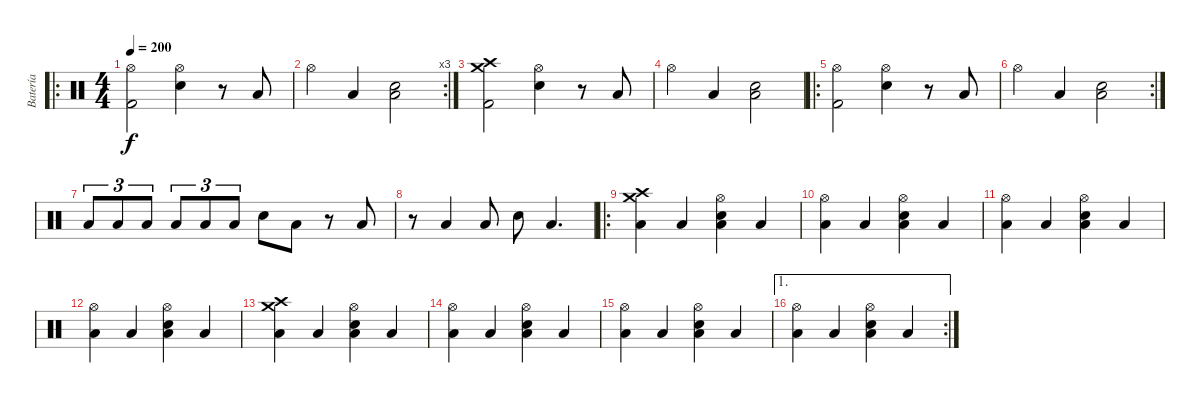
\track ("Batería" "Batería") {instrument percussion}
\staff {score}
\articulation defaults
\ro
\ts (4 4)
\tempo 200
\clef neutral
\ks c
("Hi-Hat (open)" "Kick (hit) 2").2{dy f} ("Hi-Hat (open)" "Electric Snare (hit)").4 r.8 "Low Floor Tom (hit)".8 |
\rc 3 "Hi-Hat (open)".4 "Low Floor Tom (hit)".4
("Low Tom (hit)" "Electric Snare (hit)").2 |
("Crash medium (hit)" "Crash high (hit)" "Kick (hit) 2").2 ("Hi-Hat (open)" "Electric Snare (hit)").4 r.8 "Low Floor Tom (hit)".8 |
"Hi-Hat (open)".4 "Low Floor Tom (hit)".4 ("Low Tom (hit)" "Electric Snare (hit)").2 |
\ro
("Hi-Hat (open)" "Kick (hit) 2").2 ("Hi-Hat (open)" "Electric Snare (hit)").4 r.8 "Low Floor Tom (hit)".8 |
\rc 2 "Hi-Hat (open)".4 "Low Floor Tom (hit)".4
("Low Tom (hit)" "Electric Snare (hit)").2 |
"Low Floor Tom (hit)".8{tu (3 2)} "Low Floor Tom (hit)".8{tu (3 2)} "Low Floor Tom (hit)".8{tu (3 2)} "Low Floor Tom (hit)".8{tu (3 2)} "Low Floor Tom (hit)".8{tu (3 2)} "Low Floor Tom (hit)".8{tu (3 2)} "Electric Snare (hit)".8 "Low Floor Tom (hit)".8 r.8 "Low Floor Tom (hit)".8 |
r.8 "Low Floor Tom (hit)".4 "Low Floor Tom (hit)".8 "Electric Snare (hit)".8 "Low Floor Tom (hit)".4{d} |
\ro
("Crash high (hit)" "Crash medium (hit)" "Low Floor Tom (hit)").4 "Low Floor Tom (hit)".4 ("Hi-Hat (open)" "Electric Snare (hit)" "Low Floor Tom (hit)").4 "Low Floor Tom (hit)".4 |
("Hi-Hat (open)" "Low Floor Tom (hit)").4 "Low Floor Tom (hit)".4 ("Hi-Hat (open)" "Electric Snare (hit)" "Low Floor Tom (hit)").4 "Low Floor Tom (hit)".4 |
("Hi-Hat (open)" "Low Floor Tom (hit)").4 "Low Floor Tom (hit)".4 ("Hi-Hat (open)" "Electric Snare (hit)" "Low Floor Tom (hit)").4 "Low Floor Tom (hit)".4 |
("Hi-Hat (open)" "Low Floor Tom (hit)").4 "Low Floor Tom (hit)".4 ("Hi-Hat (open)" "Electric Snare (hit)" "Low Floor Tom (hit)").4 "Low Floor Tom (hit)".4 |
("Crash high (hit)" "Crash medium (hit)" "Low Floor Tom (hit)").4 "Low Floor Tom (hit)".4 ("Hi-Hat (open)" "Electric Snare (hit)" "Low Floor Tom (hit)").4 "Low Floor Tom (hit)".4 |
("Hi-Hat (open)" "Low Floor Tom (hit)").4 "Low Floor Tom (hit)".4 ("Hi-Hat (open)" "Electric Snare (hit)" "Low Floor Tom (hit)").4 "Low Floor Tom (hit)".4 |
("Hi-Hat (open)" "Low Floor Tom (hit)").4 "Low Floor Tom (hit)".4 ("Hi-Hat (open)" "Electric Snare (hit)" "Low Floor Tom (hit)").4 "Low Floor Tom (hit)".4 |
\ae 1
\rc 2
("Hi-Hat (open)" "Low Floor Tom (hit)").4 "Low Floor Tom (hit)".4 ("Hi-Hat (open)" "Electric Snare (hit)" "Low Floor Tom (hit)").4 "Low Floor Tom (hit)".4
